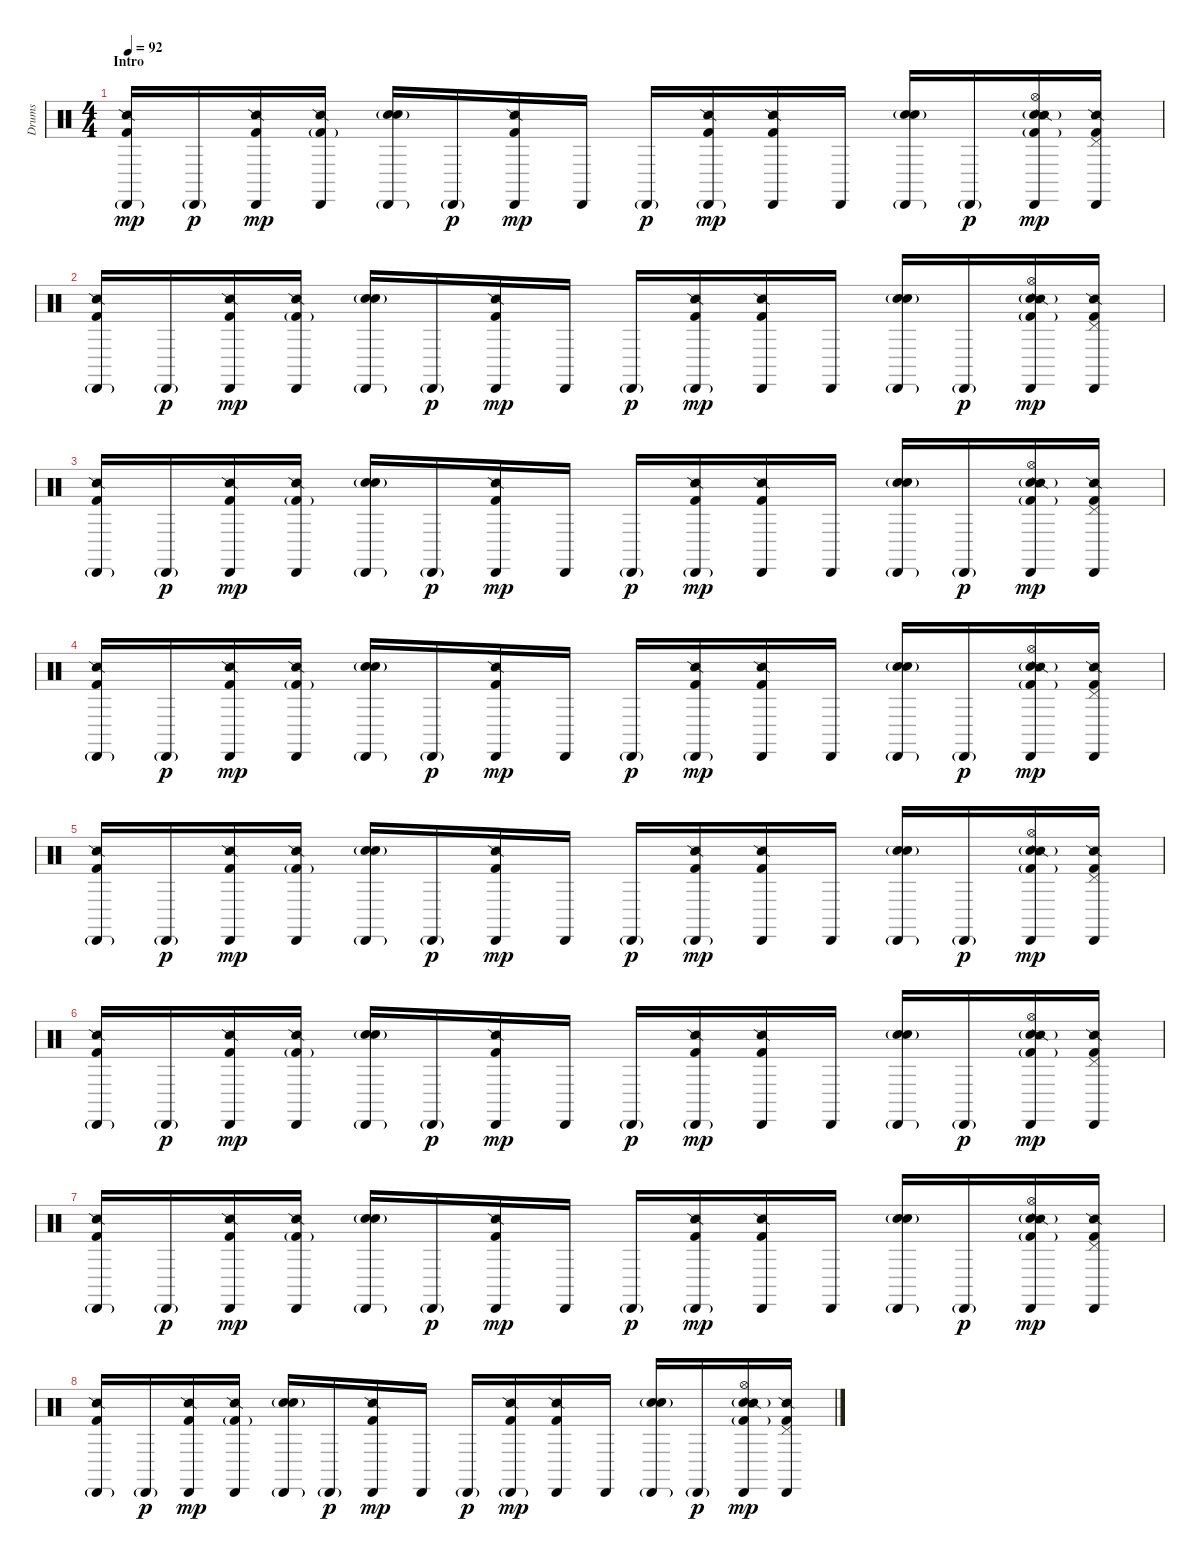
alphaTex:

\track ("Drums" "Drums") {instrument percussion}
\staff {score}
\articulation defaults
\ts (4 4)
\section ("" "Intro")
\tempo 92
\clef neutral
\ks c
("Cabasa (hit)"{g} "Kick (hit) 2" "Snare (side stick) 2").16{dy mp} "Cabasa (hit)"{g}.16{dy p} ("Cabasa (hit)" "Kick (hit) 2" "Snare (side stick) 2").16{dy mp} ("Cabasa (hit)" "Kick (hit) 2"{g} "Snare (side stick) 2").16 ("Cabasa (hit)"{g} "Hand Clap (hit)"{g} "Electric Snare (hit)").16 "Cabasa (hit)"{g}.16{dy p} ("Cabasa (hit)" "Kick (hit) 2" "Snare (side stick) 2").16{dy mp} "Cabasa (hit)".16 "Cabasa (hit)"{g}.16{dy p} ("Cabasa (hit)"{g} "Kick (hit) 2" "Snare (side stick) 2").16{dy mp} ("Cabasa (hit)" "Kick (hit) 2" "Snare (side stick) 2").16 "Cabasa (hit)".16 ("Cabasa (hit)"{g} "Hand Clap (hit)"{g} "Electric Snare (hit)").16 "Cabasa (hit)"{g}.16{dy p} ("Cabasa (hit)" "Hi-Hat (open)" "Hand Clap (hit)"{g} "Kick (hit) 2"{g} "Snare (side stick) 2").16{dy mp} ("Cabasa (hit)" "Pedal Hi-Hat (hit)" "Kick (hit) 2" "Snare (side stick) 2").16 |
("Cabasa (hit)"{g} "Kick (hit) 2" "Snare (side stick) 2").16 "Cabasa (hit)"{g}.16{dy p} ("Cabasa (hit)" "Kick (hit) 2" "Snare (side stick) 2").16{dy mp} ("Cabasa (hit)" "Kick (hit) 2"{g} "Snare (side stick) 2").16 ("Cabasa (hit)"{g} "Hand Clap (hit)"{g} "Electric Snare (hit)").16 "Cabasa (hit)"{g}.16{dy p} ("Cabasa (hit)" "Kick (hit) 2" "Snare (side stick) 2").16{dy mp} "Cabasa (hit)".16 "Cabasa (hit)"{g}.16{dy p} ("Cabasa (hit)"{g} "Kick (hit) 2" "Snare (side stick) 2").16{dy mp} ("Cabasa (hit)" "Kick (hit) 2" "Snare (side stick) 2").16 "Cabasa (hit)".16 ("Cabasa (hit)"{g} "Hand Clap (hit)"{g} "Electric Snare (hit)").16 "Cabasa (hit)"{g}.16{dy p} ("Cabasa (hit)" "Hi-Hat (open)" "Hand Clap (hit)"{g} "Kick (hit) 2"{g} "Snare (side stick) 2").16{dy mp} ("Cabasa (hit)" "Pedal Hi-Hat (hit)" "Kick (hit) 2" "Snare (side stick) 2").16 |
("Cabasa (hit)"{g} "Kick (hit) 2" "Snare (side stick) 2").16 "Cabasa (hit)"{g}.16{dy p} ("Cabasa (hit)" "Kick (hit) 2" "Snare (side stick) 2").16{dy mp} ("Cabasa (hit)" "Kick (hit) 2"{g} "Snare (side stick) 2").16 ("Cabasa (hit)"{g} "Hand Clap (hit)"{g} "Electric Snare (hit)").16 "Cabasa (hit)"{g}.16{dy p} ("Cabasa (hit)" "Kick (hit) 2" "Snare (side stick) 2").16{dy mp} "Cabasa (hit)".16 "Cabasa (hit)"{g}.16{dy p} ("Cabasa (hit)"{g} "Kick (hit) 2" "Snare (side stick) 2").16{dy mp} ("Cabasa (hit)" "Kick (hit) 2" "Snare (side stick) 2").16 "Cabasa (hit)".16 ("Cabasa (hit)"{g} "Hand Clap (hit)"{g} "Electric Snare (hit)").16 "Cabasa (hit)"{g}.16{dy p} ("Cabasa (hit)" "Hi-Hat (open)" "Hand Clap (hit)"{g} "Kick (hit) 2"{g} "Snare (side stick) 2").16{dy mp} ("Cabasa (hit)" "Pedal Hi-Hat (hit)" "Kick (hit) 2" "Snare (side stick) 2").16 |
("Cabasa (hit)"{g} "Kick (hit) 2" "Snare (side stick) 2").16 "Cabasa (hit)"{g}.16{dy p} ("Cabasa (hit)" "Kick (hit) 2" "Snare (side stick) 2").16{dy mp} ("Cabasa (hit)" "Kick (hit) 2"{g} "Snare (side stick) 2").16 ("Cabasa (hit)"{g} "Hand Clap (hit)"{g} "Electric Snare (hit)").16 "Cabasa (hit)"{g}.16{dy p} ("Cabasa (hit)" "Kick (hit) 2" "Snare (side stick) 2").16{dy mp} "Cabasa (hit)".16 "Cabasa (hit)"{g}.16{dy p} ("Cabasa (hit)"{g} "Kick (hit) 2" "Snare (side stick) 2").16{dy mp} ("Cabasa (hit)" "Kick (hit) 2" "Snare (side stick) 2").16 "Cabasa (hit)".16 ("Cabasa (hit)"{g} "Hand Clap (hit)"{g} "Electric Snare (hit)").16 "Cabasa (hit)"{g}.16{dy p} ("Cabasa (hit)" "Hi-Hat (open)" "Hand Clap (hit)"{g} "Kick (hit) 2"{g} "Snare (side stick) 2").16{dy mp} ("Cabasa (hit)" "Pedal Hi-Hat (hit)" "Kick (hit) 2" "Snare (side stick) 2").16 |
("Cabasa (hit)"{g} "Kick (hit) 2" "Snare (side stick) 2").16 "Cabasa (hit)"{g}.16{dy p} ("Cabasa (hit)" "Kick (hit) 2" "Snare (side stick) 2").16{dy mp} ("Cabasa (hit)" "Kick (hit) 2"{g} "Snare (side stick) 2").16 ("Cabasa (hit)"{g} "Hand Clap (hit)"{g} "Electric Snare (hit)").16 "Cabasa (hit)"{g}.16{dy p} ("Cabasa (hit)" "Kick (hit) 2" "Snare (side stick) 2").16{dy mp} "Cabasa (hit)".16 "Cabasa (hit)"{g}.16{dy p} ("Cabasa (hit)"{g} "Kick (hit) 2" "Snare (side stick) 2").16{dy mp} ("Cabasa (hit)" "Kick (hit) 2" "Snare (side stick) 2").16 "Cabasa (hit)".16 ("Cabasa (hit)"{g} "Hand Clap (hit)"{g} "Electric Snare (hit)").16 "Cabasa (hit)"{g}.16{dy p} ("Cabasa (hit)" "Hi-Hat (open)" "Hand Clap (hit)"{g} "Kick (hit) 2"{g} "Snare (side stick) 2").16{dy mp} ("Cabasa (hit)" "Pedal Hi-Hat (hit)" "Kick (hit) 2" "Snare (side stick) 2").16 |
("Cabasa (hit)"{g} "Kick (hit) 2" "Snare (side stick) 2").16 "Cabasa (hit)"{g}.16{dy p} ("Cabasa (hit)" "Kick (hit) 2" "Snare (side stick) 2").16{dy mp} ("Cabasa (hit)" "Kick (hit) 2"{g} "Snare (side stick) 2").16 ("Cabasa (hit)"{g} "Hand Clap (hit)"{g} "Electric Snare (hit)").16 "Cabasa (hit)"{g}.16{dy p} ("Cabasa (hit)" "Kick (hit) 2" "Snare (side stick) 2").16{dy mp} "Cabasa (hit)".16 "Cabasa (hit)"{g}.16{dy p} ("Cabasa (hit)"{g} "Kick (hit) 2" "Snare (side stick) 2").16{dy mp} ("Cabasa (hit)" "Kick (hit) 2" "Snare (side stick) 2").16 "Cabasa (hit)".16 ("Cabasa (hit)"{g} "Hand Clap (hit)"{g} "Electric Snare (hit)").16 "Cabasa (hit)"{g}.16{dy p} ("Cabasa (hit)" "Hi-Hat (open)" "Hand Clap (hit)"{g} "Kick (hit) 2"{g} "Snare (side stick) 2").16{dy mp} ("Cabasa (hit)" "Pedal Hi-Hat (hit)" "Kick (hit) 2" "Snare (side stick) 2").16 |
("Cabasa (hit)"{g} "Kick (hit) 2" "Snare (side stick) 2").16 "Cabasa (hit)"{g}.16{dy p} ("Cabasa (hit)" "Kick (hit) 2" "Snare (side stick) 2").16{dy mp} ("Cabasa (hit)" "Kick (hit) 2"{g} "Snare (side stick) 2").16 ("Cabasa (hit)"{g} "Hand Clap (hit)"{g} "Electric Snare (hit)").16 "Cabasa (hit)"{g}.16{dy p} ("Cabasa (hit)" "Kick (hit) 2" "Snare (side stick) 2").16{dy mp} "Cabasa (hit)".16 "Cabasa (hit)"{g}.16{dy p} ("Cabasa (hit)"{g} "Kick (hit) 2" "Snare (side stick) 2").16{dy mp} ("Cabasa (hit)" "Kick (hit) 2" "Snare (side stick) 2").16 "Cabasa (hit)".16 ("Cabasa (hit)"{g} "Hand Clap (hit)"{g} "Electric Snare (hit)").16 "Cabasa (hit)"{g}.16{dy p} ("Cabasa (hit)" "Hi-Hat (open)" "Hand Clap (hit)"{g} "Kick (hit) 2"{g} "Snare (side stick) 2").16{dy mp} ("Cabasa (hit)" "Pedal Hi-Hat (hit)" "Kick (hit) 2" "Snare (side stick) 2").16 |
("Cabasa (hit)"{g} "Kick (hit) 2" "Snare (side stick) 2").16 "Cabasa (hit)"{g}.16{dy p} ("Cabasa (hit)" "Kick (hit) 2" "Snare (side stick) 2").16{dy mp} ("Cabasa (hit)" "Kick (hit) 2"{g} "Snare (side stick) 2").16 ("Cabasa (hit)"{g} "Hand Clap (hit)"{g} "Electric Snare (hit)").16 "Cabasa (hit)"{g}.16{dy p} ("Cabasa (hit)" "Kick (hit) 2" "Snare (side stick) 2").16{dy mp} "Cabasa (hit)".16 "Cabasa (hit)"{g}.16{dy p} ("Cabasa (hit)"{g} "Kick (hit) 2" "Snare (side stick) 2").16{dy mp} ("Cabasa (hit)" "Kick (hit) 2" "Snare (side stick) 2").16 "Cabasa (hit)".16 ("Cabasa (hit)"{g} "Hand Clap (hit)"{g} "Electric Snare (hit)").16 "Cabasa (hit)"{g}.16{dy p} ("Cabasa (hit)" "Hi-Hat (open)" "Hand Clap (hit)"{g} "Kick (hit) 2"{g} "Snare (side stick) 2").16{dy mp} ("Cabasa (hit)" "Pedal Hi-Hat (hit)" "Kick (hit) 2" "Snare (side stick) 2").16
